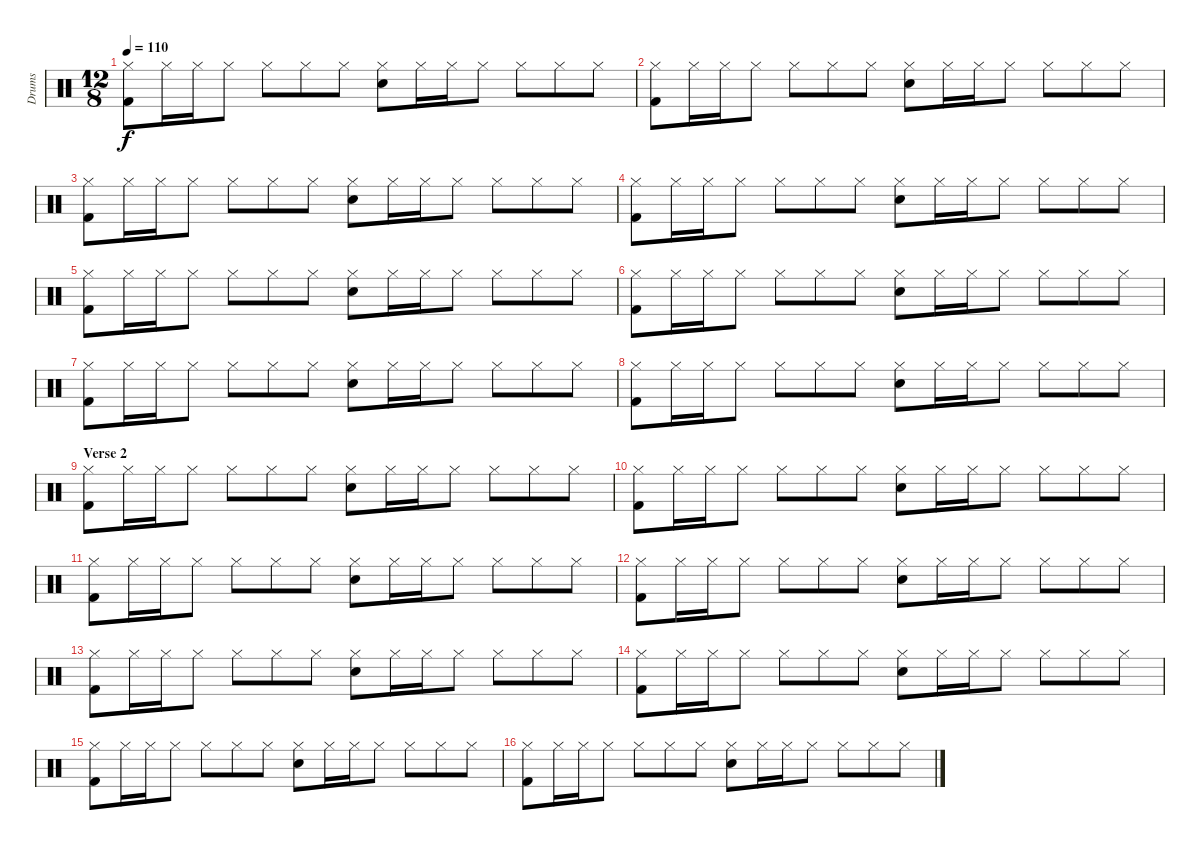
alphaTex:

\track ("Drums" "Drums") {instrument percussion}
\staff {score}
\articulation defaults
\ts (12 8)
\tempo 110
\clef neutral
\ks c
("Hi-Hat (closed)" "Kick (hit) 2").8{dy f} "Hi-Hat (closed)".16 "Hi-Hat (closed)".16 "Hi-Hat (closed)".8 "Hi-Hat (closed)".8 "Hi-Hat (closed)".8 "Hi-Hat (closed)".8 ("Hi-Hat (closed)" "Snare (hit) 2").8 "Hi-Hat (closed)".16 "Hi-Hat (closed)".16 "Hi-Hat (closed)".8 "Hi-Hat (closed)".8 "Hi-Hat (closed)".8 "Hi-Hat (closed)".8 |
("Hi-Hat (closed)" "Kick (hit) 2").8 "Hi-Hat (closed)".16 "Hi-Hat (closed)".16 "Hi-Hat (closed)".8 "Hi-Hat (closed)".8 "Hi-Hat (closed)".8 "Hi-Hat (closed)".8 ("Hi-Hat (closed)" "Snare (hit) 2").8 "Hi-Hat (closed)".16 "Hi-Hat (closed)".16 "Hi-Hat (closed)".8 "Hi-Hat (closed)".8 "Hi-Hat (closed)".8 "Hi-Hat (closed)".8 |
("Hi-Hat (closed)" "Kick (hit) 2").8 "Hi-Hat (closed)".16 "Hi-Hat (closed)".16 "Hi-Hat (closed)".8 "Hi-Hat (closed)".8 "Hi-Hat (closed)".8 "Hi-Hat (closed)".8 ("Hi-Hat (closed)" "Snare (hit) 2").8 "Hi-Hat (closed)".16 "Hi-Hat (closed)".16 "Hi-Hat (closed)".8 "Hi-Hat (closed)".8 "Hi-Hat (closed)".8 "Hi-Hat (closed)".8 |
("Hi-Hat (closed)" "Kick (hit) 2").8 "Hi-Hat (closed)".16 "Hi-Hat (closed)".16 "Hi-Hat (closed)".8 "Hi-Hat (closed)".8 "Hi-Hat (closed)".8 "Hi-Hat (closed)".8 ("Hi-Hat (closed)" "Snare (hit) 2").8 "Hi-Hat (closed)".16 "Hi-Hat (closed)".16 "Hi-Hat (closed)".8 "Hi-Hat (closed)".8 "Hi-Hat (closed)".8 "Hi-Hat (closed)".8 |
("Hi-Hat (closed)" "Kick (hit) 2").8 "Hi-Hat (closed)".16 "Hi-Hat (closed)".16 "Hi-Hat (closed)".8 "Hi-Hat (closed)".8 "Hi-Hat (closed)".8 "Hi-Hat (closed)".8 ("Hi-Hat (closed)" "Snare (hit) 2").8 "Hi-Hat (closed)".16 "Hi-Hat (closed)".16 "Hi-Hat (closed)".8 "Hi-Hat (closed)".8 "Hi-Hat (closed)".8 "Hi-Hat (closed)".8 |
("Hi-Hat (closed)" "Kick (hit) 2").8 "Hi-Hat (closed)".16 "Hi-Hat (closed)".16 "Hi-Hat (closed)".8 "Hi-Hat (closed)".8 "Hi-Hat (closed)".8 "Hi-Hat (closed)".8 ("Hi-Hat (closed)" "Snare (hit) 2").8 "Hi-Hat (closed)".16 "Hi-Hat (closed)".16 "Hi-Hat (closed)".8 "Hi-Hat (closed)".8 "Hi-Hat (closed)".8 "Hi-Hat (closed)".8 |
("Hi-Hat (closed)" "Kick (hit) 2").8 "Hi-Hat (closed)".16 "Hi-Hat (closed)".16 "Hi-Hat (closed)".8 "Hi-Hat (closed)".8 "Hi-Hat (closed)".8 "Hi-Hat (closed)".8 ("Hi-Hat (closed)" "Snare (hit) 2").8 "Hi-Hat (closed)".16 "Hi-Hat (closed)".16 "Hi-Hat (closed)".8 "Hi-Hat (closed)".8 "Hi-Hat (closed)".8 "Hi-Hat (closed)".8 |
("Hi-Hat (closed)" "Kick (hit) 2").8 "Hi-Hat (closed)".16 "Hi-Hat (closed)".16 "Hi-Hat (closed)".8 "Hi-Hat (closed)".8 "Hi-Hat (closed)".8 "Hi-Hat (closed)".8 ("Hi-Hat (closed)" "Snare (hit) 2").8 "Hi-Hat (closed)".16 "Hi-Hat (closed)".16 "Hi-Hat (closed)".8 "Hi-Hat (closed)".8 "Hi-Hat (closed)".8 "Hi-Hat (closed)".8 |
\section ("" "Verse 2")
("Hi-Hat (closed)" "Kick (hit) 2").8 "Hi-Hat (closed)".16 "Hi-Hat (closed)".16 "Hi-Hat (closed)".8 "Hi-Hat (closed)".8 "Hi-Hat (closed)".8 "Hi-Hat (closed)".8 ("Hi-Hat (closed)" "Snare (hit) 2").8 "Hi-Hat (closed)".16 "Hi-Hat (closed)".16 "Hi-Hat (closed)".8 "Hi-Hat (closed)".8 "Hi-Hat (closed)".8 "Hi-Hat (closed)".8 |
("Hi-Hat (closed)" "Kick (hit) 2").8 "Hi-Hat (closed)".16 "Hi-Hat (closed)".16 "Hi-Hat (closed)".8 "Hi-Hat (closed)".8 "Hi-Hat (closed)".8 "Hi-Hat (closed)".8 ("Hi-Hat (closed)" "Snare (hit) 2").8 "Hi-Hat (closed)".16 "Hi-Hat (closed)".16 "Hi-Hat (closed)".8 "Hi-Hat (closed)".8 "Hi-Hat (closed)".8 "Hi-Hat (closed)".8 |
("Hi-Hat (closed)" "Kick (hit) 2").8 "Hi-Hat (closed)".16 "Hi-Hat (closed)".16 "Hi-Hat (closed)".8 "Hi-Hat (closed)".8 "Hi-Hat (closed)".8 "Hi-Hat (closed)".8 ("Hi-Hat (closed)" "Snare (hit) 2").8 "Hi-Hat (closed)".16 "Hi-Hat (closed)".16 "Hi-Hat (closed)".8 "Hi-Hat (closed)".8 "Hi-Hat (closed)".8 "Hi-Hat (closed)".8 |
("Hi-Hat (closed)" "Kick (hit) 2").8 "Hi-Hat (closed)".16 "Hi-Hat (closed)".16 "Hi-Hat (closed)".8 "Hi-Hat (closed)".8 "Hi-Hat (closed)".8 "Hi-Hat (closed)".8 ("Hi-Hat (closed)" "Snare (hit) 2").8 "Hi-Hat (closed)".16 "Hi-Hat (closed)".16 "Hi-Hat (closed)".8 "Hi-Hat (closed)".8 "Hi-Hat (closed)".8 "Hi-Hat (closed)".8 |
("Hi-Hat (closed)" "Kick (hit) 2").8 "Hi-Hat (closed)".16 "Hi-Hat (closed)".16 "Hi-Hat (closed)".8 "Hi-Hat (closed)".8 "Hi-Hat (closed)".8 "Hi-Hat (closed)".8 ("Hi-Hat (closed)" "Snare (hit) 2").8 "Hi-Hat (closed)".16 "Hi-Hat (closed)".16 "Hi-Hat (closed)".8 "Hi-Hat (closed)".8 "Hi-Hat (closed)".8 "Hi-Hat (closed)".8 |
("Hi-Hat (closed)" "Kick (hit) 2").8 "Hi-Hat (closed)".16 "Hi-Hat (closed)".16 "Hi-Hat (closed)".8 "Hi-Hat (closed)".8 "Hi-Hat (closed)".8 "Hi-Hat (closed)".8 ("Hi-Hat (closed)" "Snare (hit) 2").8 "Hi-Hat (closed)".16 "Hi-Hat (closed)".16 "Hi-Hat (closed)".8 "Hi-Hat (closed)".8 "Hi-Hat (closed)".8 "Hi-Hat (closed)".8 |
("Hi-Hat (closed)" "Kick (hit) 2").8 "Hi-Hat (closed)".16 "Hi-Hat (closed)".16 "Hi-Hat (closed)".8 "Hi-Hat (closed)".8 "Hi-Hat (closed)".8 "Hi-Hat (closed)".8 ("Hi-Hat (closed)" "Snare (hit) 2").8 "Hi-Hat (closed)".16 "Hi-Hat (closed)".16 "Hi-Hat (closed)".8 "Hi-Hat (closed)".8 "Hi-Hat (closed)".8 "Hi-Hat (closed)".8 |
("Hi-Hat (closed)" "Kick (hit) 2").8 "Hi-Hat (closed)".16 "Hi-Hat (closed)".16 "Hi-Hat (closed)".8 "Hi-Hat (closed)".8 "Hi-Hat (closed)".8 "Hi-Hat (closed)".8 ("Hi-Hat (closed)" "Snare (hit) 2").8 "Hi-Hat (closed)".16 "Hi-Hat (closed)".16 "Hi-Hat (closed)".8 "Hi-Hat (closed)".8 "Hi-Hat (closed)".8 "Hi-Hat (closed)".8
